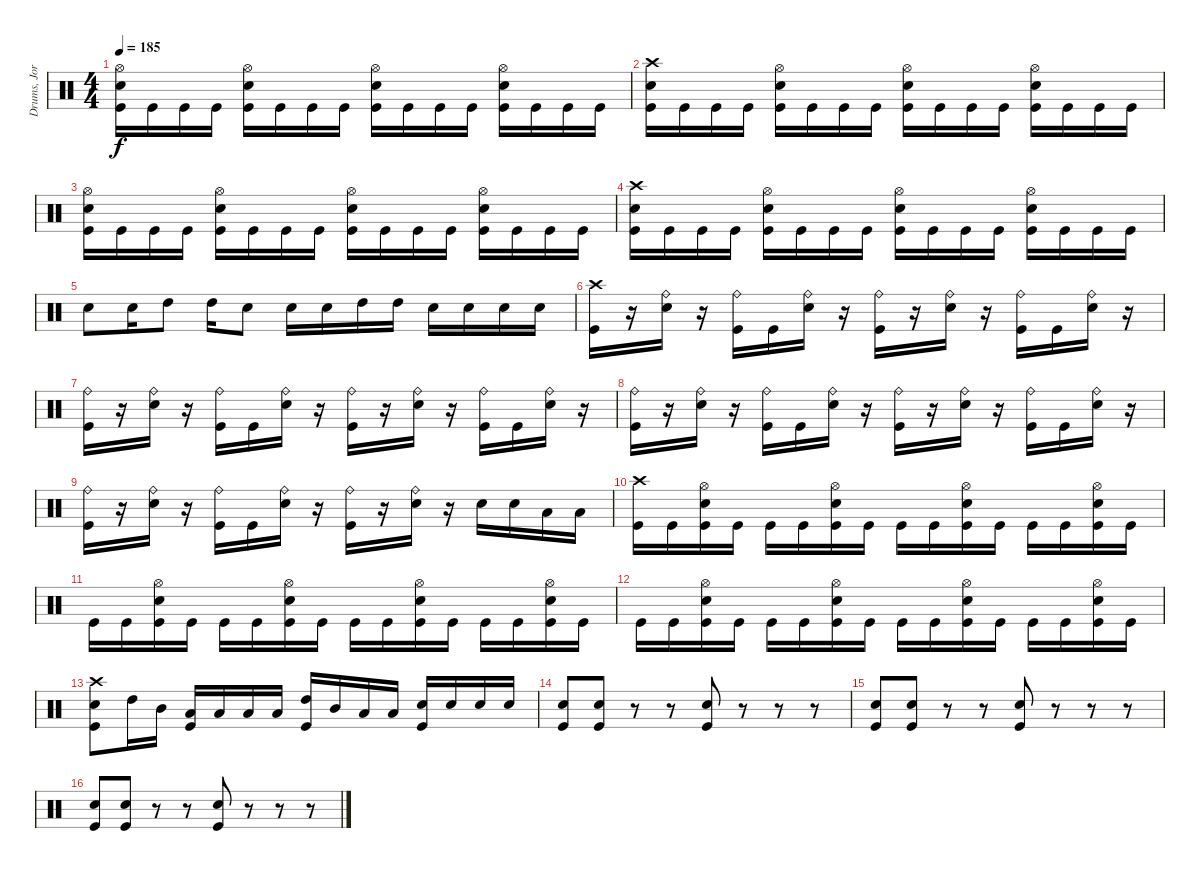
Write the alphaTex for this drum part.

\track ("Drums, Jorye Sáez" "Drums, Jor") {instrument percussion}
\staff {score}
\articulation defaults
\ts (4 4)
\tempo 185
\clef neutral
\ks c
("Kick (hit)" "Electric Snare (hit)" "Hi-Hat (open)").16{dy f} "Kick (hit)".16 "Kick (hit)".16 "Kick (hit)".16 ("Kick (hit)" "Electric Snare (hit)" "Hi-Hat (open)").16 "Kick (hit)".16 "Kick (hit)".16 "Kick (hit)".16 ("Kick (hit)" "Electric Snare (hit)" "Hi-Hat (open)").16 "Kick (hit)".16 "Kick (hit)".16 "Kick (hit)".16 ("Kick (hit)" "Electric Snare (hit)" "Hi-Hat (open)").16 "Kick (hit)".16 "Kick (hit)".16 "Kick (hit)".16 |
("Kick (hit)" "Electric Snare (hit)" "Crash high (hit)").16 "Kick (hit)".16 "Kick (hit)".16 "Kick (hit)".16 ("Kick (hit)" "Electric Snare (hit)" "Hi-Hat (open)").16 "Kick (hit)".16 "Kick (hit)".16 "Kick (hit)".16 ("Kick (hit)" "Electric Snare (hit)" "Hi-Hat (open)").16 "Kick (hit)".16 "Kick (hit)".16 "Kick (hit)".16 ("Kick (hit)" "Electric Snare (hit)" "Hi-Hat (open)").16 "Kick (hit)".16 "Kick (hit)".16 "Kick (hit)".16 |
("Kick (hit)" "Electric Snare (hit)" "Hi-Hat (open)").16 "Kick (hit)".16 "Kick (hit)".16 "Kick (hit)".16 ("Kick (hit)" "Electric Snare (hit)" "Hi-Hat (open)").16 "Kick (hit)".16 "Kick (hit)".16 "Kick (hit)".16 ("Kick (hit)" "Electric Snare (hit)" "Hi-Hat (open)").16 "Kick (hit)".16 "Kick (hit)".16 "Kick (hit)".16 ("Kick (hit)" "Electric Snare (hit)" "Hi-Hat (open)").16 "Kick (hit)".16 "Kick (hit)".16 "Kick (hit)".16 |
("Kick (hit)" "Electric Snare (hit)" "Crash high (hit)").16 "Kick (hit)".16 "Kick (hit)".16 "Kick (hit)".16 ("Kick (hit)" "Electric Snare (hit)" "Hi-Hat (open)").16 "Kick (hit)".16 "Kick (hit)".16 "Kick (hit)".16 ("Kick (hit)" "Electric Snare (hit)" "Hi-Hat (open)").16 "Kick (hit)".16 "Kick (hit)".16 "Kick (hit)".16 ("Kick (hit)" "Electric Snare (hit)" "Hi-Hat (open)").16 "Kick (hit)".16 "Kick (hit)".16 "Kick (hit)".16 |
"Electric Snare (hit)".8 "Electric Snare (hit)".16 "High Tom (hit)".8 "High Tom (hit)".16 "Electric Snare (hit)".8 "Electric Snare (hit)".16 "Electric Snare (hit)".16 "High Tom (hit)".16 "High Tom (hit)".16 "Electric Snare (hit)".16 "Electric Snare (hit)".16 "Electric Snare (hit)".16 "Electric Snare (hit)".16 |
("Kick (hit)" "Crash high (hit)").16 r.16 ("Electric Snare (hit)" "Ride (bell)").16 r.16 ("Kick (hit)" "Ride (bell)").16 "Kick (hit)".16 ("Electric Snare (hit)" "Ride (bell)").16 r.16 ("Kick (hit)" "Ride (bell)").16 r.16 ("Electric Snare (hit)" "Ride (bell)").16 r.16 ("Kick (hit)" "Ride (bell)").16 "Kick (hit)".16 ("Electric Snare (hit)" "Ride (bell)").16 r.16 |
("Kick (hit)" "Ride (bell)").16 r.16 ("Electric Snare (hit)" "Ride (bell)").16 r.16 ("Kick (hit)" "Ride (bell)").16 "Kick (hit)".16 ("Electric Snare (hit)" "Ride (bell)").16 r.16 ("Kick (hit)" "Ride (bell)").16 r.16 ("Electric Snare (hit)" "Ride (bell)").16 r.16 ("Kick (hit)" "Ride (bell)").16 "Kick (hit)".16 ("Electric Snare (hit)" "Ride (bell)").16 r.16 |
("Kick (hit)" "Ride (bell)").16 r.16 ("Electric Snare (hit)" "Ride (bell)").16 r.16 ("Kick (hit)" "Ride (bell)").16 "Kick (hit)".16 ("Electric Snare (hit)" "Ride (bell)").16 r.16 ("Kick (hit)" "Ride (bell)").16 r.16 ("Electric Snare (hit)" "Ride (bell)").16 r.16 ("Kick (hit)" "Ride (bell)").16 "Kick (hit)".16 ("Electric Snare (hit)" "Ride (bell)").16 r.16 |
("Kick (hit)" "Ride (bell)").16 r.16 ("Electric Snare (hit)" "Ride (bell)").16 r.16 ("Kick (hit)" "Ride (bell)").16 "Kick (hit)".16 ("Electric Snare (hit)" "Ride (bell)").16 r.16 ("Kick (hit)" "Ride (bell)").16 r.16 ("Electric Snare (hit)" "Ride (bell)").16 r.16 "Electric Snare (hit)".16 "Electric Snare (hit)".16 "Low Tom (hit)".16 "Low Tom (hit)".16 |
("Kick (hit)" "Crash high (hit)").16 "Kick (hit)".16 ("Kick (hit)" "Electric Snare (hit)" "Hi-Hat (open)").16 "Kick (hit)".16 "Kick (hit)".16 "Kick (hit)".16 ("Kick (hit)" "Electric Snare (hit)" "Hi-Hat (open)").16 "Kick (hit)".16 "Kick (hit)".16 "Kick (hit)".16 ("Kick (hit)" "Electric Snare (hit)" "Hi-Hat (open)").16 "Kick (hit)".16 "Kick (hit)".16 "Kick (hit)".16 ("Kick (hit)" "Electric Snare (hit)" "Hi-Hat (open)").16 "Kick (hit)".16 |
"Kick (hit)".16 "Kick (hit)".16 ("Kick (hit)" "Electric Snare (hit)" "Hi-Hat (open)").16 "Kick (hit)".16 "Kick (hit)".16 "Kick (hit)".16 ("Kick (hit)" "Electric Snare (hit)" "Hi-Hat (open)").16 "Kick (hit)".16 "Kick (hit)".16 "Kick (hit)".16 ("Kick (hit)" "Electric Snare (hit)" "Hi-Hat (open)").16 "Kick (hit)".16 "Kick (hit)".16 "Kick (hit)".16 ("Kick (hit)" "Electric Snare (hit)" "Hi-Hat (open)").16 "Kick (hit)".16 |
"Kick (hit)".16 "Kick (hit)".16 ("Kick (hit)" "Electric Snare (hit)" "Hi-Hat (open)").16 "Kick (hit)".16 "Kick (hit)".16 "Kick (hit)".16 ("Kick (hit)" "Electric Snare (hit)" "Hi-Hat (open)").16 "Kick (hit)".16 "Kick (hit)".16 "Kick (hit)".16 ("Kick (hit)" "Electric Snare (hit)" "Hi-Hat (open)").16 "Kick (hit)".16 "Kick (hit)".16 "Kick (hit)".16 ("Kick (hit)" "Electric Snare (hit)" "Hi-Hat (open)").16 "Kick (hit)".16 |
("Crash high (hit)" "Electric Snare (hit)" "Kick (hit)").8 "High Tom (hit)".16 "Mid Tom (hit)".16 ("Low Tom (hit)" "Kick (hit)").16 "Low Tom (hit)".16 "Low Tom (hit)".16 "Low Tom (hit)".16 ("High Tom (hit)" "Kick (hit)").16 "Mid Tom (hit)".16 "Low Tom (hit)".16 "Low Tom (hit)".16 ("Electric Snare (hit)" "Kick (hit)").16 "Electric Snare (hit)".16 "Electric Snare (hit)".16 "Electric Snare (hit)".16 |
("Electric Snare (hit)" "Kick (hit)").8 ("Electric Snare (hit)" "Kick (hit)").8 r.8 r.8 ("Electric Snare (hit)" "Kick (hit)").8 r.8 r.8 r.8 |
("Electric Snare (hit)" "Kick (hit)").8 ("Electric Snare (hit)" "Kick (hit)").8 r.8 r.8 ("Electric Snare (hit)" "Kick (hit)").8 r.8 r.8 r.8 |
("Electric Snare (hit)" "Kick (hit)").8 ("Electric Snare (hit)" "Kick (hit)").8 r.8 r.8 ("Electric Snare (hit)" "Kick (hit)").8 r.8 r.8 r.8
